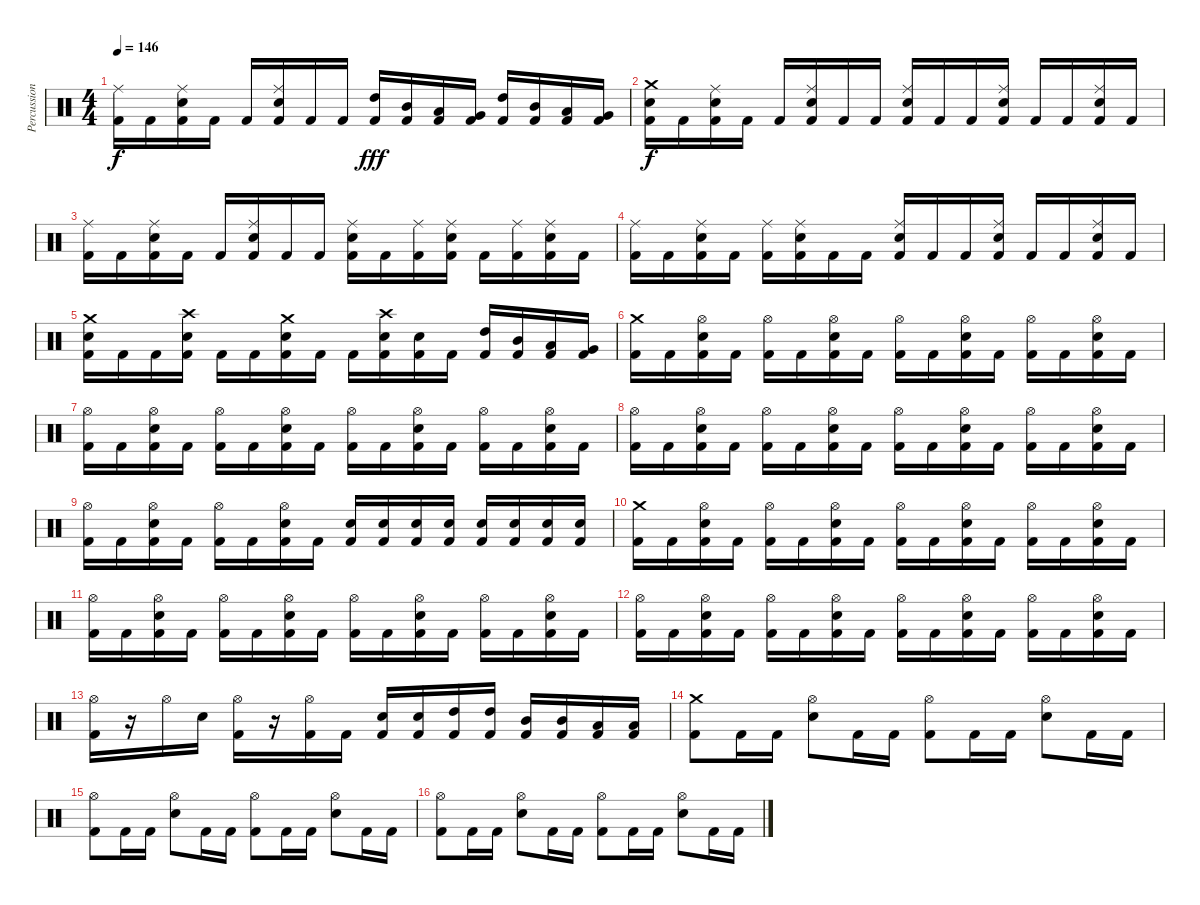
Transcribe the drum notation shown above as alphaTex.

\track ("Percussion" "Percussion") {instrument percussion}
\staff {score}
\articulation defaults
\ts (4 4)
\tempo 146
\clef neutral
\ks c
("Kick (hit) 2" "Ride (middle)").16{dy f} "Kick (hit) 2".16 ("Kick (hit) 2" "Electric Snare (hit)" "Ride (middle)").16 "Kick (hit) 2".16 "Kick (hit) 2".16 ("Kick (hit) 2" "Electric Snare (hit)" "Ride (middle)").16 "Kick (hit) 2".16 "Kick (hit) 2".16 ("Kick (hit) 2" "High Tom (hit)").16{dy fff} ("Kick (hit) 2" "Mid Tom (hit)").16 ("Kick (hit) 2" "Low Tom (hit)").16 ("Kick (hit) 2" "Very Low Tom (hit)").16 ("Kick (hit) 2" "High Tom (hit)").16 ("Kick (hit) 2" "Mid Tom (hit)").16 ("Kick (hit) 2" "Low Tom (hit)").16 ("Kick (hit) 2" "Very Low Tom (hit)").16 |
("Kick (hit) 2" "Electric Snare (hit)" "Crash medium (hit)").16{dy f} "Kick (hit) 2".16 ("Kick (hit) 2" "Electric Snare (hit)" "Ride (middle)").16 "Kick (hit) 2".16 "Kick (hit) 2".16 ("Kick (hit) 2" "Electric Snare (hit)" "Ride (middle)").16 "Kick (hit) 2".16 "Kick (hit) 2".16 ("Kick (hit) 2" "Electric Snare (hit)" "Ride (middle)").16 "Kick (hit) 2".16 "Kick (hit) 2".16 ("Kick (hit) 2" "Electric Snare (hit)" "Ride (middle)").16 "Kick (hit) 2".16 "Kick (hit) 2".16 ("Kick (hit) 2" "Electric Snare (hit)" "Ride (middle)").16 "Kick (hit) 2".16 |
("Kick (hit) 2" "Ride (middle)").16 "Kick (hit) 2".16 ("Kick (hit) 2" "Electric Snare (hit)" "Ride (middle)").16 "Kick (hit) 2".16 "Kick (hit) 2".16 ("Kick (hit) 2" "Electric Snare (hit)" "Ride (middle)").16 "Kick (hit) 2".16 "Kick (hit) 2".16 ("Kick (hit) 2" "Electric Snare (hit)" "Ride (middle)").16 "Kick (hit) 2".16 ("Kick (hit) 2" "Ride (middle)").16 ("Kick (hit) 2" "Electric Snare (hit)" "Ride (middle)").16 "Kick (hit) 2".16 ("Kick (hit) 2" "Ride (middle)").16 ("Kick (hit) 2" "Electric Snare (hit)" "Ride (middle)").16 "Kick (hit) 2".16 |
("Kick (hit) 2" "Ride (middle)").16 "Kick (hit) 2".16 ("Kick (hit) 2" "Electric Snare (hit)" "Ride (middle)").16 "Kick (hit) 2".16 ("Kick (hit) 2" "Ride (middle)").16 ("Kick (hit) 2" "Electric Snare (hit)" "Ride (middle)").16 "Kick (hit) 2".16 "Kick (hit) 2".16 ("Kick (hit) 2" "Electric Snare (hit)" "Ride (middle)").16 "Kick (hit) 2".16 "Kick (hit) 2".16 ("Kick (hit) 2" "Electric Snare (hit)" "Ride (middle)").16 "Kick (hit) 2".16 "Kick (hit) 2".16 ("Kick (hit) 2" "Electric Snare (hit)" "Ride (middle)").16 "Kick (hit) 2".16 |
("Kick (hit) 2" "Electric Snare (hit)" "Crash medium (hit)").16 "Kick (hit) 2".16 "Kick (hit) 2".16 ("Kick (hit) 2" "Electric Snare (hit)" "Crash high (hit)").16 "Kick (hit) 2".16 "Kick (hit) 2".16 ("Kick (hit) 2" "Electric Snare (hit)" "Crash medium (hit)").16 "Kick (hit) 2".16 "Kick (hit) 2".16 ("Kick (hit) 2" "Electric Snare (hit)" "Crash high (hit)").16 ("Kick (hit) 2" "Electric Snare (hit)").16 "Kick (hit) 2".16 ("Kick (hit) 2" "High Tom (hit)").16 ("Kick (hit) 2" "Mid Tom (hit)").16 ("Kick (hit) 2" "Low Tom (hit)").16 ("Kick (hit) 2" "Very Low Tom (hit)").16 |
("Kick (hit) 2" "Crash medium (hit)").16 "Kick (hit) 2".16 ("Kick (hit) 2" "Electric Snare (hit)" "Hi-Hat (open)").16 "Kick (hit) 2".16 ("Kick (hit) 2" "Hi-Hat (open)").16 "Kick (hit) 2".16 ("Kick (hit) 2" "Electric Snare (hit)" "Hi-Hat (open)").16 "Kick (hit) 2".16 ("Kick (hit) 2" "Hi-Hat (open)").16 "Kick (hit) 2".16 ("Kick (hit) 2" "Electric Snare (hit)" "Hi-Hat (open)").16 "Kick (hit) 2".16 ("Kick (hit) 2" "Hi-Hat (open)").16 "Kick (hit) 2".16 ("Kick (hit) 2" "Electric Snare (hit)" "Hi-Hat (open)").16 "Kick (hit) 2".16 |
("Kick (hit) 2" "Hi-Hat (open)").16 "Kick (hit) 2".16 ("Kick (hit) 2" "Electric Snare (hit)" "Hi-Hat (open)").16 "Kick (hit) 2".16 ("Kick (hit) 2" "Hi-Hat (open)").16 "Kick (hit) 2".16 ("Kick (hit) 2" "Electric Snare (hit)" "Hi-Hat (open)").16 "Kick (hit) 2".16 ("Kick (hit) 2" "Hi-Hat (open)").16 "Kick (hit) 2".16 ("Kick (hit) 2" "Electric Snare (hit)" "Hi-Hat (open)").16 "Kick (hit) 2".16 ("Kick (hit) 2" "Hi-Hat (open)").16 "Kick (hit) 2".16 ("Kick (hit) 2" "Electric Snare (hit)" "Hi-Hat (open)").16 "Kick (hit) 2".16 |
("Kick (hit) 2" "Hi-Hat (open)").16 "Kick (hit) 2".16 ("Kick (hit) 2" "Electric Snare (hit)" "Hi-Hat (open)").16 "Kick (hit) 2".16 ("Kick (hit) 2" "Hi-Hat (open)").16 "Kick (hit) 2".16 ("Kick (hit) 2" "Electric Snare (hit)" "Hi-Hat (open)").16 "Kick (hit) 2".16 ("Kick (hit) 2" "Hi-Hat (open)").16 "Kick (hit) 2".16 ("Kick (hit) 2" "Electric Snare (hit)" "Hi-Hat (open)").16 "Kick (hit) 2".16 ("Kick (hit) 2" "Hi-Hat (open)").16 "Kick (hit) 2".16 ("Kick (hit) 2" "Electric Snare (hit)" "Hi-Hat (open)").16 "Kick (hit) 2".16 |
("Kick (hit) 2" "Hi-Hat (open)").16 "Kick (hit) 2".16 ("Kick (hit) 2" "Electric Snare (hit)" "Hi-Hat (open)").16 "Kick (hit) 2".16 ("Kick (hit) 2" "Hi-Hat (open)").16 "Kick (hit) 2".16 ("Kick (hit) 2" "Electric Snare (hit)" "Hi-Hat (open)").16 "Kick (hit) 2".16 ("Kick (hit) 2" "Electric Snare (hit)").16 ("Kick (hit) 2" "Electric Snare (hit)").16 ("Kick (hit) 2" "Electric Snare (hit)").16 ("Kick (hit) 2" "Electric Snare (hit)").16 ("Kick (hit) 2" "Electric Snare (hit)").16 ("Kick (hit) 2" "Electric Snare (hit)").16 ("Kick (hit) 2" "Electric Snare (hit)").16 ("Kick (hit) 2" "Electric Snare (hit)").16 |
("Kick (hit) 2" "Crash medium (hit)").16 "Kick (hit) 2".16 ("Kick (hit) 2" "Electric Snare (hit)" "Hi-Hat (open)").16 "Kick (hit) 2".16 ("Kick (hit) 2" "Hi-Hat (open)").16 "Kick (hit) 2".16 ("Kick (hit) 2" "Electric Snare (hit)" "Hi-Hat (open)").16 "Kick (hit) 2".16 ("Kick (hit) 2" "Hi-Hat (open)").16 "Kick (hit) 2".16 ("Kick (hit) 2" "Electric Snare (hit)" "Hi-Hat (open)").16 "Kick (hit) 2".16 ("Kick (hit) 2" "Hi-Hat (open)").16 "Kick (hit) 2".16 ("Kick (hit) 2" "Electric Snare (hit)" "Hi-Hat (open)").16 "Kick (hit) 2".16 |
("Kick (hit) 2" "Hi-Hat (open)").16 "Kick (hit) 2".16 ("Kick (hit) 2" "Electric Snare (hit)" "Hi-Hat (open)").16 "Kick (hit) 2".16 ("Kick (hit) 2" "Hi-Hat (open)").16 "Kick (hit) 2".16 ("Kick (hit) 2" "Electric Snare (hit)" "Hi-Hat (open)").16 "Kick (hit) 2".16 ("Kick (hit) 2" "Hi-Hat (open)").16 "Kick (hit) 2".16 ("Kick (hit) 2" "Electric Snare (hit)" "Hi-Hat (open)").16 "Kick (hit) 2".16 ("Kick (hit) 2" "Hi-Hat (open)").16 "Kick (hit) 2".16 ("Kick (hit) 2" "Electric Snare (hit)" "Hi-Hat (open)").16 "Kick (hit) 2".16 |
("Kick (hit) 2" "Hi-Hat (open)").16 "Kick (hit) 2".16 ("Kick (hit) 2" "Electric Snare (hit)" "Hi-Hat (open)").16 "Kick (hit) 2".16 ("Kick (hit) 2" "Hi-Hat (open)").16 "Kick (hit) 2".16 ("Kick (hit) 2" "Electric Snare (hit)" "Hi-Hat (open)").16 "Kick (hit) 2".16 ("Kick (hit) 2" "Hi-Hat (open)").16 "Kick (hit) 2".16 ("Kick (hit) 2" "Electric Snare (hit)" "Hi-Hat (open)").16 "Kick (hit) 2".16 ("Kick (hit) 2" "Hi-Hat (open)").16 "Kick (hit) 2".16 ("Kick (hit) 2" "Electric Snare (hit)" "Hi-Hat (open)").16 "Kick (hit) 2".16 |
("Kick (hit) 2" "Hi-Hat (open)").16 r.16 "Hi-Hat (open)".16 "Electric Snare (hit)".16 ("Kick (hit) 2" "Hi-Hat (open)").16 r.16 ("Kick (hit) 2" "Hi-Hat (open)").16 "Kick (hit) 2".16 ("Kick (hit) 2" "Electric Snare (hit)").16 ("Kick (hit) 2" "Electric Snare (hit)").16 ("Kick (hit) 2" "High Tom (hit)").16 ("Kick (hit) 2" "High Tom (hit)").16 ("Kick (hit) 2" "Mid Tom (hit)").16 ("Kick (hit) 2" "Mid Tom (hit)").16 ("Kick (hit) 2" "Low Tom (hit)").16 ("Kick (hit) 2" "Low Tom (hit)").16 |
("Kick (hit) 2" "Crash medium (hit)").8 "Kick (hit) 2".16 "Kick (hit) 2".16 ("Electric Snare (hit)" "Hi-Hat (open)").8 "Kick (hit) 2".16 "Kick (hit) 2".16 ("Kick (hit) 2" "Hi-Hat (open)").8 "Kick (hit) 2".16 "Kick (hit) 2".16 ("Electric Snare (hit)" "Hi-Hat (open)").8 "Kick (hit) 2".16 "Kick (hit) 2".16 |
("Kick (hit) 2" "Hi-Hat (open)").8 "Kick (hit) 2".16 "Kick (hit) 2".16 ("Electric Snare (hit)" "Hi-Hat (open)").8 "Kick (hit) 2".16 "Kick (hit) 2".16 ("Kick (hit) 2" "Hi-Hat (open)").8 "Kick (hit) 2".16 "Kick (hit) 2".16 ("Electric Snare (hit)" "Hi-Hat (open)").8 "Kick (hit) 2".16 "Kick (hit) 2".16 |
("Kick (hit) 2" "Hi-Hat (open)").8 "Kick (hit) 2".16 "Kick (hit) 2".16 ("Electric Snare (hit)" "Hi-Hat (open)").8 "Kick (hit) 2".16 "Kick (hit) 2".16 ("Kick (hit) 2" "Hi-Hat (open)").8 "Kick (hit) 2".16 "Kick (hit) 2".16 ("Electric Snare (hit)" "Hi-Hat (open)").8 "Kick (hit) 2".16 "Kick (hit) 2".16
